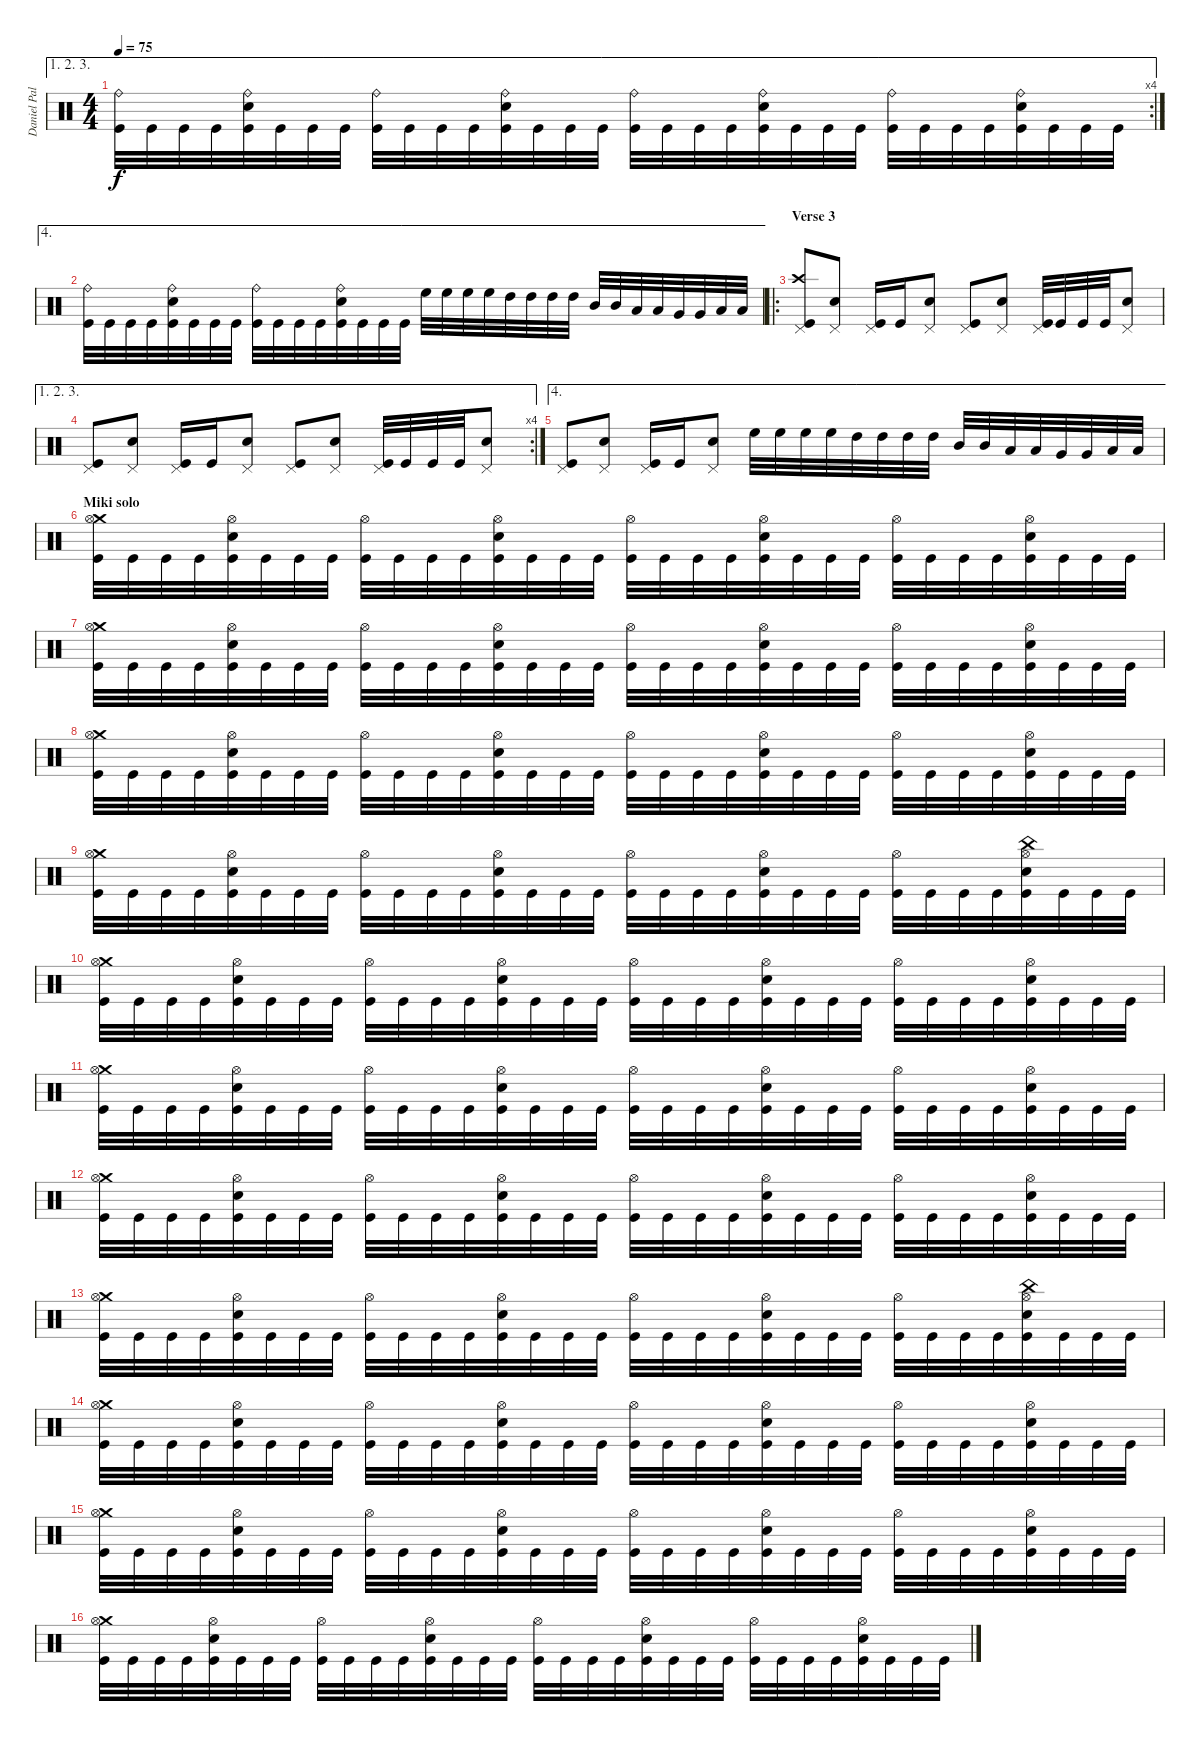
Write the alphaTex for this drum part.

\track ("Daniel Pal" "Daniel Pal") {instrument percussion}
\staff {score}
\articulation defaults
\ae (1 2 3)
\rc 4
\ts (4 4)
\tempo 75
\clef neutral
\ks c
("Ride (bell)" "Kick (hit)").32{dy f} "Kick (hit)".32 "Kick (hit)".32 "Kick (hit)".32 ("Ride (bell)" "Electric Snare (hit)" "Kick (hit)").32 "Kick (hit)".32 "Kick (hit)".32 "Kick (hit)".32 ("Ride (bell)" "Kick (hit)").32 "Kick (hit)".32 "Kick (hit)".32 "Kick (hit)".32 ("Ride (bell)" "Electric Snare (hit)" "Kick (hit)").32 "Kick (hit)".32 "Kick (hit)".32 "Kick (hit)".32 ("Ride (bell)" "Kick (hit)").32 "Kick (hit)".32 "Kick (hit)".32 "Kick (hit)".32 ("Ride (bell)" "Electric Snare (hit)" "Kick (hit)").32 "Kick (hit)".32 "Kick (hit)".32 "Kick (hit)".32 ("Ride (bell)" "Kick (hit)").32 "Kick (hit)".32 "Kick (hit)".32 "Kick (hit)".32 ("Ride (bell)" "Electric Snare (hit)" "Kick (hit)").32 "Kick (hit)".32 "Kick (hit)".32 "Kick (hit)".32 |
\ae 4
("Ride (bell)" "Kick (hit)").32 "Kick (hit)".32 "Kick (hit)".32 "Kick (hit)".32 ("Ride (bell)" "Electric Snare (hit)" "Kick (hit)").32 "Kick (hit)".32 "Kick (hit)".32 "Kick (hit)".32 ("Ride (bell)" "Kick (hit)").32 "Kick (hit)".32 "Kick (hit)".32 "Kick (hit)".32 ("Ride (bell)" "Electric Snare (hit)" "Kick (hit)").32 "Kick (hit)".32 "Kick (hit)".32 "Kick (hit)".32 "High Floor Tom (hit)".32 "High Floor Tom (hit)".32 "High Floor Tom (hit)".32 "High Floor Tom (hit)".32 "High Tom (hit)".32 "High Tom (hit)".32 "High Tom (hit)".32 "High Tom (hit)".32 "Mid Tom (hit)".32 "Mid Tom (hit)".32 "Low Tom (hit)".32 "Low Tom (hit)".32 "Very Low Tom (hit)".32 "Very Low Tom (hit)".32 "Low Floor Tom (hit)".32 "Low Floor Tom (hit)".32 |
\ro
\section ("" "Verse 3")
("Crash high (hit)" "Pedal Hi-Hat (hit)" "Kick (hit)").8 ("Pedal Hi-Hat (hit)" "Electric Snare (hit)").8 ("Pedal Hi-Hat (hit)" "Kick (hit)").16 "Kick (hit)".16 ("Pedal Hi-Hat (hit)" "Electric Snare (hit)").8 ("Pedal Hi-Hat (hit)" "Kick (hit)").8 ("Pedal Hi-Hat (hit)" "Electric Snare (hit)").8 ("Pedal Hi-Hat (hit)" "Kick (hit)").32 "Kick (hit)".32 "Kick (hit)".32 "Kick (hit)".32 ("Pedal Hi-Hat (hit)" "Electric Snare (hit)").8 |
\ae (1 2 3)
\rc 4
("Pedal Hi-Hat (hit)" "Kick (hit)").8 ("Pedal Hi-Hat (hit)" "Electric Snare (hit)").8 ("Pedal Hi-Hat (hit)" "Kick (hit)").16 "Kick (hit)".16 ("Pedal Hi-Hat (hit)" "Electric Snare (hit)").8 ("Pedal Hi-Hat (hit)" "Kick (hit)").8 ("Pedal Hi-Hat (hit)" "Electric Snare (hit)").8 ("Pedal Hi-Hat (hit)" "Kick (hit)").32 "Kick (hit)".32 "Kick (hit)".32 "Kick (hit)".32 ("Pedal Hi-Hat (hit)" "Electric Snare (hit)").8 |
\ae 4
("Pedal Hi-Hat (hit)" "Kick (hit)").8 ("Pedal Hi-Hat (hit)" "Electric Snare (hit)").8 ("Pedal Hi-Hat (hit)" "Kick (hit)").16 "Kick (hit)".16 ("Pedal Hi-Hat (hit)" "Electric Snare (hit)").8 "High Floor Tom (hit)".32 "High Floor Tom (hit)".32 "High Floor Tom (hit)".32 "High Floor Tom (hit)".32 "High Tom (hit)".32 "High Tom (hit)".32 "High Tom (hit)".32 "High Tom (hit)".32 "Mid Tom (hit)".32 "Mid Tom (hit)".32 "Low Tom (hit)".32 "Low Tom (hit)".32 "Very Low Tom (hit)".32 "Very Low Tom (hit)".32 "Low Floor Tom (hit)".32 "Low Floor Tom (hit)".32 |
\section ("" "Miki solo")
("Crash medium (hit)" "Hi-Hat (open)" "Kick (hit)").32 "Kick (hit)".32 "Kick (hit)".32 "Kick (hit)".32 ("Hi-Hat (open)" "Electric Snare (hit)" "Kick (hit)").32 "Kick (hit)".32 "Kick (hit)".32 "Kick (hit)".32 ("Hi-Hat (open)" "Kick (hit)").32 "Kick (hit)".32 "Kick (hit)".32 "Kick (hit)".32 ("Hi-Hat (open)" "Electric Snare (hit)" "Kick (hit)").32 "Kick (hit)".32 "Kick (hit)".32 "Kick (hit)".32 ("Hi-Hat (open)" "Kick (hit)").32 "Kick (hit)".32 "Kick (hit)".32 "Kick (hit)".32 ("Hi-Hat (open)" "Electric Snare (hit)" "Kick (hit)").32 "Kick (hit)".32 "Kick (hit)".32 "Kick (hit)".32 ("Hi-Hat (open)" "Kick (hit)").32 "Kick (hit)".32 "Kick (hit)".32 "Kick (hit)".32 ("Hi-Hat (open)" "Electric Snare (hit)" "Kick (hit)").32 "Kick (hit)".32 "Kick (hit)".32 "Kick (hit)".32 |
("Crash medium (hit)" "Hi-Hat (open)" "Kick (hit)").32 "Kick (hit)".32 "Kick (hit)".32 "Kick (hit)".32 ("Hi-Hat (open)" "Electric Snare (hit)" "Kick (hit)").32 "Kick (hit)".32 "Kick (hit)".32 "Kick (hit)".32 ("Hi-Hat (open)" "Kick (hit)").32 "Kick (hit)".32 "Kick (hit)".32 "Kick (hit)".32 ("Hi-Hat (open)" "Electric Snare (hit)" "Kick (hit)").32 "Kick (hit)".32 "Kick (hit)".32 "Kick (hit)".32 ("Hi-Hat (open)" "Kick (hit)").32 "Kick (hit)".32 "Kick (hit)".32 "Kick (hit)".32 ("Hi-Hat (open)" "Electric Snare (hit)" "Kick (hit)").32 "Kick (hit)".32 "Kick (hit)".32 "Kick (hit)".32 ("Hi-Hat (open)" "Kick (hit)").32 "Kick (hit)".32 "Kick (hit)".32 "Kick (hit)".32 ("Hi-Hat (open)" "Electric Snare (hit)" "Kick (hit)").32 "Kick (hit)".32 "Kick (hit)".32 "Kick (hit)".32 |
("Crash medium (hit)" "Hi-Hat (open)" "Kick (hit)").32 "Kick (hit)".32 "Kick (hit)".32 "Kick (hit)".32 ("Hi-Hat (open)" "Electric Snare (hit)" "Kick (hit)").32 "Kick (hit)".32 "Kick (hit)".32 "Kick (hit)".32 ("Hi-Hat (open)" "Kick (hit)").32 "Kick (hit)".32 "Kick (hit)".32 "Kick (hit)".32 ("Hi-Hat (open)" "Electric Snare (hit)" "Kick (hit)").32 "Kick (hit)".32 "Kick (hit)".32 "Kick (hit)".32 ("Hi-Hat (open)" "Kick (hit)").32 "Kick (hit)".32 "Kick (hit)".32 "Kick (hit)".32 ("Hi-Hat (open)" "Electric Snare (hit)" "Kick (hit)").32 "Kick (hit)".32 "Kick (hit)".32 "Kick (hit)".32 ("Hi-Hat (open)" "Kick (hit)").32 "Kick (hit)".32 "Kick (hit)".32 "Kick (hit)".32 ("Hi-Hat (open)" "Electric Snare (hit)" "Kick (hit)").32 "Kick (hit)".32 "Kick (hit)".32 "Kick (hit)".32 |
("Crash medium (hit)" "Hi-Hat (open)" "Kick (hit)").32 "Kick (hit)".32 "Kick (hit)".32 "Kick (hit)".32 ("Hi-Hat (open)" "Electric Snare (hit)" "Kick (hit)").32 "Kick (hit)".32 "Kick (hit)".32 "Kick (hit)".32 ("Hi-Hat (open)" "Kick (hit)").32 "Kick (hit)".32 "Kick (hit)".32 "Kick (hit)".32 ("Hi-Hat (open)" "Electric Snare (hit)" "Kick (hit)").32 "Kick (hit)".32 "Kick (hit)".32 "Kick (hit)".32 ("Hi-Hat (open)" "Kick (hit)").32 "Kick (hit)".32 "Kick (hit)".32 "Kick (hit)".32 ("Hi-Hat (open)" "Electric Snare (hit)" "Kick (hit)").32 "Kick (hit)".32 "Kick (hit)".32 "Kick (hit)".32 ("Hi-Hat (open)" "Kick (hit)").32 "Kick (hit)".32 "Kick (hit)".32 "Kick (hit)".32 ("China (hit)" "Hi-Hat (open)" "Electric Snare (hit)" "Kick (hit)").32 "Kick (hit)".32 "Kick (hit)".32 "Kick (hit)".32 |
("Crash medium (hit)" "Hi-Hat (open)" "Kick (hit)").32 "Kick (hit)".32 "Kick (hit)".32 "Kick (hit)".32 ("Hi-Hat (open)" "Electric Snare (hit)" "Kick (hit)").32 "Kick (hit)".32 "Kick (hit)".32 "Kick (hit)".32 ("Hi-Hat (open)" "Kick (hit)").32 "Kick (hit)".32 "Kick (hit)".32 "Kick (hit)".32 ("Hi-Hat (open)" "Electric Snare (hit)" "Kick (hit)").32 "Kick (hit)".32 "Kick (hit)".32 "Kick (hit)".32 ("Hi-Hat (open)" "Kick (hit)").32 "Kick (hit)".32 "Kick (hit)".32 "Kick (hit)".32 ("Hi-Hat (open)" "Electric Snare (hit)" "Kick (hit)").32 "Kick (hit)".32 "Kick (hit)".32 "Kick (hit)".32 ("Hi-Hat (open)" "Kick (hit)").32 "Kick (hit)".32 "Kick (hit)".32 "Kick (hit)".32 ("Hi-Hat (open)" "Electric Snare (hit)" "Kick (hit)").32 "Kick (hit)".32 "Kick (hit)".32 "Kick (hit)".32 |
("Crash medium (hit)" "Hi-Hat (open)" "Kick (hit)").32 "Kick (hit)".32 "Kick (hit)".32 "Kick (hit)".32 ("Hi-Hat (open)" "Electric Snare (hit)" "Kick (hit)").32 "Kick (hit)".32 "Kick (hit)".32 "Kick (hit)".32 ("Hi-Hat (open)" "Kick (hit)").32 "Kick (hit)".32 "Kick (hit)".32 "Kick (hit)".32 ("Hi-Hat (open)" "Electric Snare (hit)" "Kick (hit)").32 "Kick (hit)".32 "Kick (hit)".32 "Kick (hit)".32 ("Hi-Hat (open)" "Kick (hit)").32 "Kick (hit)".32 "Kick (hit)".32 "Kick (hit)".32 ("Hi-Hat (open)" "Electric Snare (hit)" "Kick (hit)").32 "Kick (hit)".32 "Kick (hit)".32 "Kick (hit)".32 ("Hi-Hat (open)" "Kick (hit)").32 "Kick (hit)".32 "Kick (hit)".32 "Kick (hit)".32 ("Hi-Hat (open)" "Electric Snare (hit)" "Kick (hit)").32 "Kick (hit)".32 "Kick (hit)".32 "Kick (hit)".32 |
("Crash medium (hit)" "Hi-Hat (open)" "Kick (hit)").32 "Kick (hit)".32 "Kick (hit)".32 "Kick (hit)".32 ("Hi-Hat (open)" "Electric Snare (hit)" "Kick (hit)").32 "Kick (hit)".32 "Kick (hit)".32 "Kick (hit)".32 ("Hi-Hat (open)" "Kick (hit)").32 "Kick (hit)".32 "Kick (hit)".32 "Kick (hit)".32 ("Hi-Hat (open)" "Electric Snare (hit)" "Kick (hit)").32 "Kick (hit)".32 "Kick (hit)".32 "Kick (hit)".32 ("Hi-Hat (open)" "Kick (hit)").32 "Kick (hit)".32 "Kick (hit)".32 "Kick (hit)".32 ("Hi-Hat (open)" "Electric Snare (hit)" "Kick (hit)").32 "Kick (hit)".32 "Kick (hit)".32 "Kick (hit)".32 ("Hi-Hat (open)" "Kick (hit)").32 "Kick (hit)".32 "Kick (hit)".32 "Kick (hit)".32 ("Hi-Hat (open)" "Electric Snare (hit)" "Kick (hit)").32 "Kick (hit)".32 "Kick (hit)".32 "Kick (hit)".32 |
("Crash medium (hit)" "Hi-Hat (open)" "Kick (hit)").32 "Kick (hit)".32 "Kick (hit)".32 "Kick (hit)".32 ("Hi-Hat (open)" "Electric Snare (hit)" "Kick (hit)").32 "Kick (hit)".32 "Kick (hit)".32 "Kick (hit)".32 ("Hi-Hat (open)" "Kick (hit)").32 "Kick (hit)".32 "Kick (hit)".32 "Kick (hit)".32 ("Hi-Hat (open)" "Electric Snare (hit)" "Kick (hit)").32 "Kick (hit)".32 "Kick (hit)".32 "Kick (hit)".32 ("Hi-Hat (open)" "Kick (hit)").32 "Kick (hit)".32 "Kick (hit)".32 "Kick (hit)".32 ("Hi-Hat (open)" "Electric Snare (hit)" "Kick (hit)").32 "Kick (hit)".32 "Kick (hit)".32 "Kick (hit)".32 ("Hi-Hat (open)" "Kick (hit)").32 "Kick (hit)".32 "Kick (hit)".32 "Kick (hit)".32 ("China (hit)" "Hi-Hat (open)" "Electric Snare (hit)" "Kick (hit)").32 "Kick (hit)".32 "Kick (hit)".32 "Kick (hit)".32 |
("Crash medium (hit)" "Hi-Hat (open)" "Kick (hit)").32 "Kick (hit)".32 "Kick (hit)".32 "Kick (hit)".32 ("Hi-Hat (open)" "Electric Snare (hit)" "Kick (hit)").32 "Kick (hit)".32 "Kick (hit)".32 "Kick (hit)".32 ("Hi-Hat (open)" "Kick (hit)").32 "Kick (hit)".32 "Kick (hit)".32 "Kick (hit)".32 ("Hi-Hat (open)" "Electric Snare (hit)" "Kick (hit)").32 "Kick (hit)".32 "Kick (hit)".32 "Kick (hit)".32 ("Hi-Hat (open)" "Kick (hit)").32 "Kick (hit)".32 "Kick (hit)".32 "Kick (hit)".32 ("Hi-Hat (open)" "Electric Snare (hit)" "Kick (hit)").32 "Kick (hit)".32 "Kick (hit)".32 "Kick (hit)".32 ("Hi-Hat (open)" "Kick (hit)").32 "Kick (hit)".32 "Kick (hit)".32 "Kick (hit)".32 ("Hi-Hat (open)" "Electric Snare (hit)" "Kick (hit)").32 "Kick (hit)".32 "Kick (hit)".32 "Kick (hit)".32 |
("Crash medium (hit)" "Hi-Hat (open)" "Kick (hit)").32 "Kick (hit)".32 "Kick (hit)".32 "Kick (hit)".32 ("Hi-Hat (open)" "Electric Snare (hit)" "Kick (hit)").32 "Kick (hit)".32 "Kick (hit)".32 "Kick (hit)".32 ("Hi-Hat (open)" "Kick (hit)").32 "Kick (hit)".32 "Kick (hit)".32 "Kick (hit)".32 ("Hi-Hat (open)" "Electric Snare (hit)" "Kick (hit)").32 "Kick (hit)".32 "Kick (hit)".32 "Kick (hit)".32 ("Hi-Hat (open)" "Kick (hit)").32 "Kick (hit)".32 "Kick (hit)".32 "Kick (hit)".32 ("Hi-Hat (open)" "Electric Snare (hit)" "Kick (hit)").32 "Kick (hit)".32 "Kick (hit)".32 "Kick (hit)".32 ("Hi-Hat (open)" "Kick (hit)").32 "Kick (hit)".32 "Kick (hit)".32 "Kick (hit)".32 ("Hi-Hat (open)" "Electric Snare (hit)" "Kick (hit)").32 "Kick (hit)".32 "Kick (hit)".32 "Kick (hit)".32 |
("Crash medium (hit)" "Hi-Hat (open)" "Kick (hit)").32 "Kick (hit)".32 "Kick (hit)".32 "Kick (hit)".32 ("Hi-Hat (open)" "Electric Snare (hit)" "Kick (hit)").32 "Kick (hit)".32 "Kick (hit)".32 "Kick (hit)".32 ("Hi-Hat (open)" "Kick (hit)").32 "Kick (hit)".32 "Kick (hit)".32 "Kick (hit)".32 ("Hi-Hat (open)" "Electric Snare (hit)" "Kick (hit)").32 "Kick (hit)".32 "Kick (hit)".32 "Kick (hit)".32 ("Hi-Hat (open)" "Kick (hit)").32 "Kick (hit)".32 "Kick (hit)".32 "Kick (hit)".32 ("Hi-Hat (open)" "Electric Snare (hit)" "Kick (hit)").32 "Kick (hit)".32 "Kick (hit)".32 "Kick (hit)".32 ("Hi-Hat (open)" "Kick (hit)").32 "Kick (hit)".32 "Kick (hit)".32 "Kick (hit)".32 ("Hi-Hat (open)" "Electric Snare (hit)" "Kick (hit)").32 "Kick (hit)".32 "Kick (hit)".32 "Kick (hit)".32
